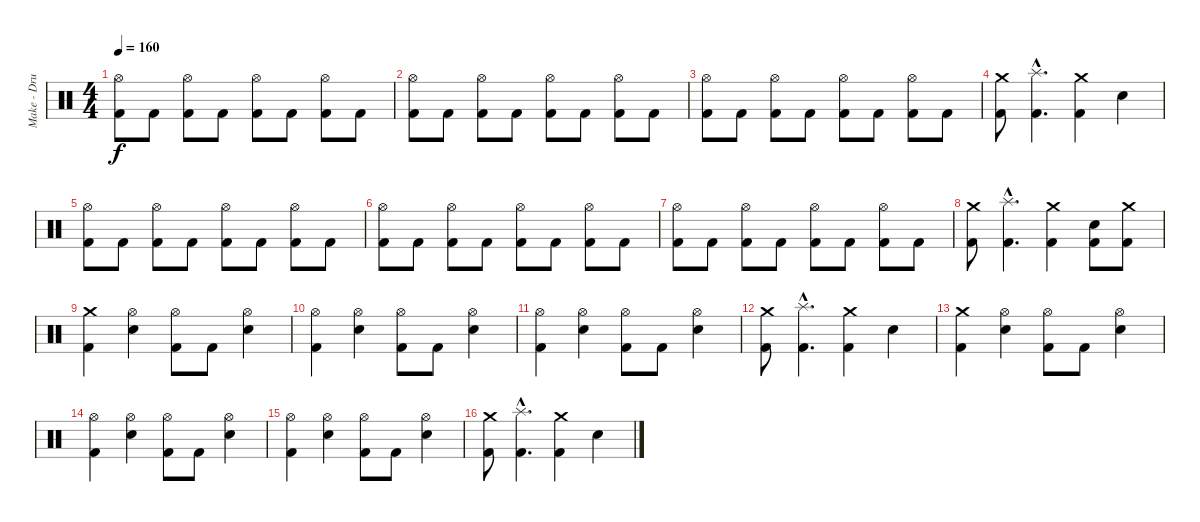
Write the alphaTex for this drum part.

\track ("Make - Drums" "Make - Dru") {instrument percussion}
\staff {score}
\articulation defaults
\ts (4 4)
\tempo 160
\clef neutral
\ks c
("Kick (hit) 2" "Hi-Hat (open)").8{dy f} "Kick (hit) 2".8 ("Kick (hit) 2" "Hi-Hat (open)").8 "Kick (hit) 2".8 ("Kick (hit) 2" "Hi-Hat (open)").8 "Kick (hit) 2".8 ("Kick (hit) 2" "Hi-Hat (open)").8 "Kick (hit) 2".8 |
("Kick (hit) 2" "Hi-Hat (open)").8 "Kick (hit) 2".8 ("Kick (hit) 2" "Hi-Hat (open)").8 "Kick (hit) 2".8 ("Kick (hit) 2" "Hi-Hat (open)").8 "Kick (hit) 2".8 ("Kick (hit) 2" "Hi-Hat (open)").8 "Kick (hit) 2".8 |
("Kick (hit) 2" "Hi-Hat (open)").8 "Kick (hit) 2".8 ("Kick (hit) 2" "Hi-Hat (open)").8 "Kick (hit) 2".8 ("Kick (hit) 2" "Hi-Hat (open)").8 "Kick (hit) 2".8 ("Kick (hit) 2" "Hi-Hat (open)").8 "Kick (hit) 2".8 |
("Kick (hit) 2" "Crash medium (hit)").8 ("Kick (hit) 2"{hac} "Splash (hit)"{hac}).4{d} ("Kick (hit) 2" "Crash medium (hit)").4 "Snare (hit) 2".4 |
("Kick (hit) 2" "Hi-Hat (open)").8 "Kick (hit) 2".8 ("Kick (hit) 2" "Hi-Hat (open)").8 "Kick (hit) 2".8 ("Kick (hit) 2" "Hi-Hat (open)").8 "Kick (hit) 2".8 ("Kick (hit) 2" "Hi-Hat (open)").8 "Kick (hit) 2".8 |
("Kick (hit) 2" "Hi-Hat (open)").8 "Kick (hit) 2".8 ("Kick (hit) 2" "Hi-Hat (open)").8 "Kick (hit) 2".8 ("Kick (hit) 2" "Hi-Hat (open)").8 "Kick (hit) 2".8 ("Kick (hit) 2" "Hi-Hat (open)").8 "Kick (hit) 2".8 |
("Kick (hit) 2" "Hi-Hat (open)").8 "Kick (hit) 2".8 ("Kick (hit) 2" "Hi-Hat (open)").8 "Kick (hit) 2".8 ("Kick (hit) 2" "Hi-Hat (open)").8 "Kick (hit) 2".8 ("Kick (hit) 2" "Hi-Hat (open)").8 "Kick (hit) 2".8 |
("Kick (hit) 2" "Crash medium (hit)").8 ("Kick (hit) 2"{hac} "Splash (hit)"{hac}).4{d} ("Kick (hit) 2" "Crash medium (hit)").4 ("Snare (hit) 2" "Kick (hit) 2").8 ("Crash medium (hit)" "Kick (hit) 2").8 |
("Kick (hit) 2" "Crash medium (hit)").4 ("Snare (hit) 2" "Hi-Hat (open)").4 ("Kick (hit) 2" "Hi-Hat (open)").8 "Kick (hit) 2".8 ("Snare (hit) 2" "Hi-Hat (open)").4 |
("Kick (hit) 2" "Hi-Hat (open)").4 ("Snare (hit) 2" "Hi-Hat (open)").4 ("Kick (hit) 2" "Hi-Hat (open)").8 "Kick (hit) 2".8 ("Snare (hit) 2" "Hi-Hat (open)").4 |
("Kick (hit) 2" "Hi-Hat (open)").4 ("Snare (hit) 2" "Hi-Hat (open)").4 ("Kick (hit) 2" "Hi-Hat (open)").8 "Kick (hit) 2".8 ("Snare (hit) 2" "Hi-Hat (open)").4 |
("Kick (hit) 2" "Crash medium (hit)").8 ("Kick (hit) 2"{hac} "Splash (hit)"{hac}).4{d} ("Kick (hit) 2" "Crash medium (hit)").4 "Snare (hit) 2".4 |
("Kick (hit) 2" "Crash medium (hit)").4 ("Snare (hit) 2" "Hi-Hat (open)").4 ("Kick (hit) 2" "Hi-Hat (open)").8 "Kick (hit) 2".8 ("Snare (hit) 2" "Hi-Hat (open)").4 |
("Kick (hit) 2" "Hi-Hat (open)").4 ("Snare (hit) 2" "Hi-Hat (open)").4 ("Kick (hit) 2" "Hi-Hat (open)").8 "Kick (hit) 2".8 ("Snare (hit) 2" "Hi-Hat (open)").4 |
("Kick (hit) 2" "Hi-Hat (open)").4 ("Snare (hit) 2" "Hi-Hat (open)").4 ("Kick (hit) 2" "Hi-Hat (open)").8 "Kick (hit) 2".8 ("Snare (hit) 2" "Hi-Hat (open)").4 |
("Kick (hit) 2" "Crash medium (hit)").8 ("Kick (hit) 2"{hac} "Splash (hit)"{hac}).4{d} ("Kick (hit) 2" "Crash medium (hit)").4 "Snare (hit) 2".4
